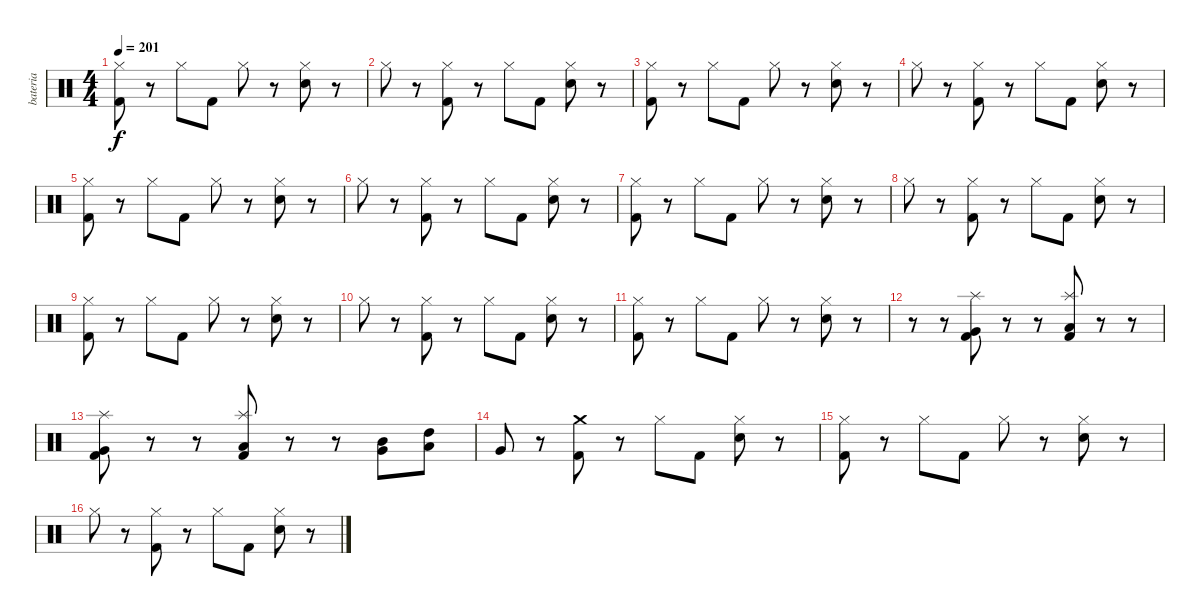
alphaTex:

\track ("bateria" "bateria") {instrument percussion}
\staff {score}
\articulation defaults
\ts (4 4)
\tempo 201
\clef neutral
\ks c
("Hi-Hat (closed)" "Kick (hit) 2").8{dy f} r.8 "Hi-Hat (closed)".8 "Kick (hit) 2".8 "Hi-Hat (closed)".8 r.8 ("Hi-Hat (closed)" "Electric Snare (hit)").8 r.8 |
"Hi-Hat (closed)".8 r.8 ("Hi-Hat (closed)" "Kick (hit) 2").8 r.8 "Hi-Hat (closed)".8 "Kick (hit) 2".8 ("Hi-Hat (closed)" "Electric Snare (hit)").8 r.8 |
("Hi-Hat (closed)" "Kick (hit) 2").8 r.8 "Hi-Hat (closed)".8 "Kick (hit) 2".8 "Hi-Hat (closed)".8 r.8 ("Hi-Hat (closed)" "Electric Snare (hit)").8 r.8 |
"Hi-Hat (closed)".8 r.8 ("Hi-Hat (closed)" "Kick (hit) 2").8 r.8 "Hi-Hat (closed)".8 "Kick (hit) 2".8 ("Hi-Hat (closed)" "Electric Snare (hit)").8 r.8 |
("Hi-Hat (closed)" "Kick (hit) 2").8 r.8 "Hi-Hat (closed)".8 "Kick (hit) 2".8 "Hi-Hat (closed)".8 r.8 ("Hi-Hat (closed)" "Electric Snare (hit)").8 r.8 |
"Hi-Hat (closed)".8 r.8 ("Hi-Hat (closed)" "Kick (hit) 2").8 r.8 "Hi-Hat (closed)".8 "Kick (hit) 2".8 ("Hi-Hat (closed)" "Electric Snare (hit)").8 r.8 |
("Hi-Hat (closed)" "Kick (hit) 2").8 r.8 "Hi-Hat (closed)".8 "Kick (hit) 2".8 "Hi-Hat (closed)".8 r.8 ("Hi-Hat (closed)" "Electric Snare (hit)").8 r.8 |
"Hi-Hat (closed)".8 r.8 ("Hi-Hat (closed)" "Kick (hit) 2").8 r.8 "Hi-Hat (closed)".8 "Kick (hit) 2".8 ("Hi-Hat (closed)" "Electric Snare (hit)").8 r.8 |
("Hi-Hat (closed)" "Kick (hit) 2").8 r.8 "Hi-Hat (closed)".8 "Kick (hit) 2".8 "Hi-Hat (closed)".8 r.8 ("Hi-Hat (closed)" "Electric Snare (hit)").8 r.8 |
"Hi-Hat (closed)".8 r.8 ("Hi-Hat (closed)" "Kick (hit) 2").8 r.8 "Hi-Hat (closed)".8 "Kick (hit) 2".8 ("Hi-Hat (closed)" "Electric Snare (hit)").8 r.8 |
("Hi-Hat (closed)" "Kick (hit) 2").8 r.8 "Hi-Hat (closed)".8 "Kick (hit) 2".8 "Hi-Hat (closed)".8 r.8 ("Hi-Hat (closed)" "Electric Snare (hit)").8 r.8 |
r.8 r.8 ("Very Low Tom (hit)" "Splash (hit)" "Kick (hit) 2").8 r.8 r.8 ("Low Floor Tom (hit)" "Splash (hit)" "Kick (hit) 2").8 r.8 r.8 |
("Very Low Tom (hit)" "Splash (hit)" "Kick (hit) 2").8 r.8 r.8 ("Low Tom (hit)" "Splash (hit)" "Kick (hit) 2").8 r.8 r.8 ("Very Low Tom (hit)" "Mid Tom (hit)").8 ("Low Tom (hit)" "High Tom (hit)").8 |
"Very Low Tom (hit)".8 r.8 ("Crash medium (hit)" "Kick (hit) 2").8 r.8 "Hi-Hat (closed)".8 "Kick (hit) 2".8 ("Hi-Hat (closed)" "Electric Snare (hit)").8 r.8 |
("Hi-Hat (closed)" "Kick (hit) 2").8 r.8 "Hi-Hat (closed)".8 "Kick (hit) 2".8 "Hi-Hat (closed)".8 r.8 ("Hi-Hat (closed)" "Electric Snare (hit)").8 r.8 |
"Hi-Hat (closed)".8 r.8 ("Hi-Hat (closed)" "Kick (hit) 2").8 r.8 "Hi-Hat (closed)".8 "Kick (hit) 2".8 ("Hi-Hat (closed)" "Electric Snare (hit)").8 r.8
